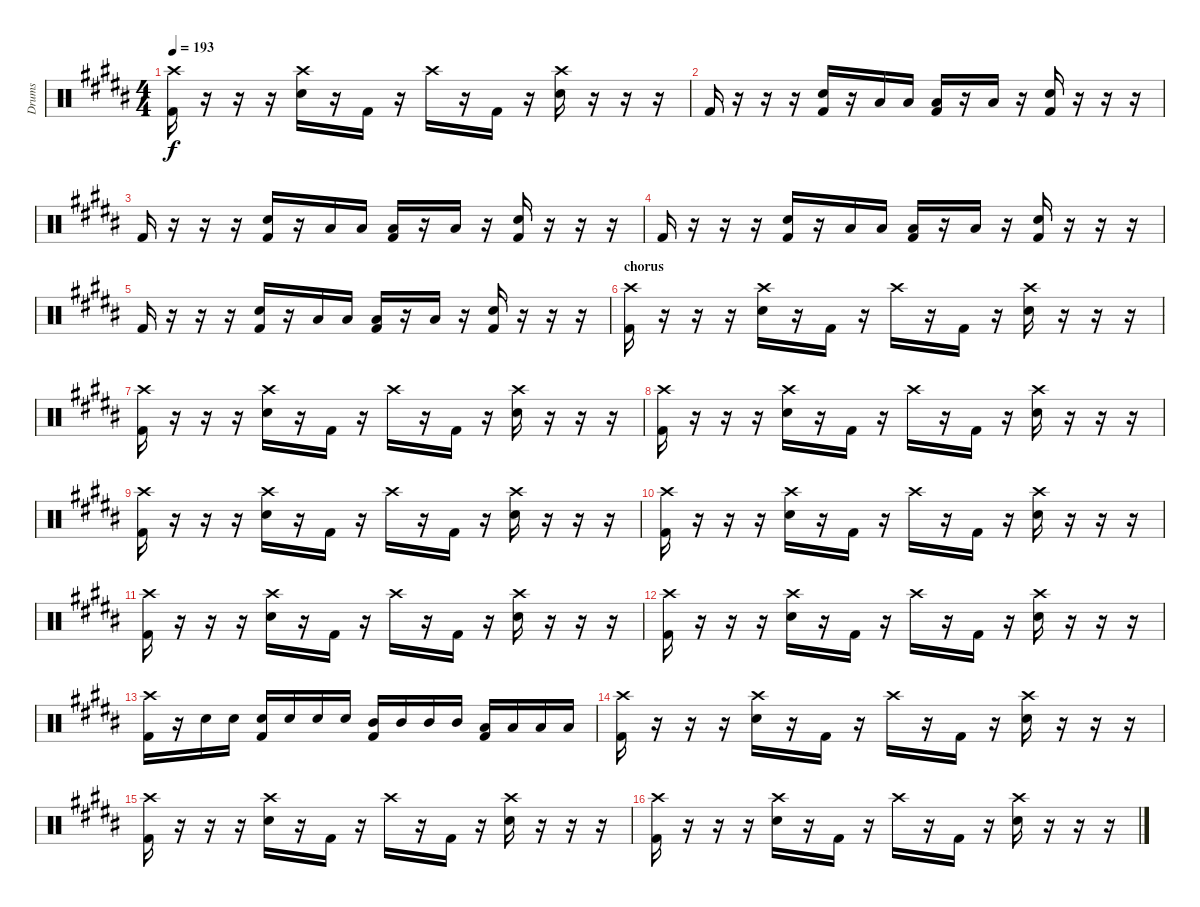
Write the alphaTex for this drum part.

\track ("Drums" "Drums") {instrument percussion}
\staff {score}
\articulation defaults
\ts (4 4)
\tempo 193
\clef neutral
\ks b
("Crash high (hit)" "Kick (hit) 2").16{dy f} r.16 r.16 r.16 ("Electric Snare (hit)" "Crash high (hit)").16 r.16 "Kick (hit) 2".16 r.16 "Crash high (hit)".16 r.16 "Kick (hit) 2".16 r.16 ("Electric Snare (hit)" "Crash high (hit)").16 r.16 r.16 r.16 |
"Kick (hit) 2".16 r.16 r.16 r.16 ("Electric Snare (hit)" "Kick (hit) 2").16 r.16 "Low Tom (hit)".16 "Low Tom (hit)".16 ("Low Tom (hit)" "Kick (hit) 2").16 r.16 "Low Tom (hit)".16 r.16 ("Electric Snare (hit)" "Kick (hit) 2").16 r.16 r.16 r.16 |
"Kick (hit) 2".16 r.16 r.16 r.16 ("Electric Snare (hit)" "Kick (hit) 2").16 r.16 "Low Tom (hit)".16 "Low Tom (hit)".16 ("Low Tom (hit)" "Kick (hit) 2").16 r.16 "Low Tom (hit)".16 r.16 ("Electric Snare (hit)" "Kick (hit) 2").16 r.16 r.16 r.16 |
"Kick (hit) 2".16 r.16 r.16 r.16 ("Electric Snare (hit)" "Kick (hit) 2").16 r.16 "Low Tom (hit)".16 "Low Tom (hit)".16 ("Low Tom (hit)" "Kick (hit) 2").16 r.16 "Low Tom (hit)".16 r.16 ("Electric Snare (hit)" "Kick (hit) 2").16 r.16 r.16 r.16 |
"Kick (hit) 2".16 r.16 r.16 r.16 ("Electric Snare (hit)" "Kick (hit) 2").16 r.16 "Low Tom (hit)".16 "Low Tom (hit)".16 ("Low Tom (hit)" "Kick (hit) 2").16 r.16 "Low Tom (hit)".16 r.16 ("Electric Snare (hit)" "Kick (hit) 2").16 r.16 r.16 r.16 |
\section ("" "chorus")
("Crash high (hit)" "Kick (hit) 2").16 r.16 r.16 r.16 ("Electric Snare (hit)" "Crash high (hit)").16 r.16 "Kick (hit) 2".16 r.16 "Crash high (hit)".16 r.16 "Kick (hit) 2".16 r.16 ("Electric Snare (hit)" "Crash high (hit)").16 r.16 r.16 r.16 |
("Crash high (hit)" "Kick (hit) 2").16 r.16 r.16 r.16 ("Electric Snare (hit)" "Crash high (hit)").16 r.16 "Kick (hit) 2".16 r.16 "Crash high (hit)".16 r.16 "Kick (hit) 2".16 r.16 ("Electric Snare (hit)" "Crash high (hit)").16 r.16 r.16 r.16 |
("Crash high (hit)" "Kick (hit) 2").16 r.16 r.16 r.16 ("Electric Snare (hit)" "Crash high (hit)").16 r.16 "Kick (hit) 2".16 r.16 "Crash high (hit)".16 r.16 "Kick (hit) 2".16 r.16 ("Electric Snare (hit)" "Crash high (hit)").16 r.16 r.16 r.16 |
("Crash high (hit)" "Kick (hit) 2").16 r.16 r.16 r.16 ("Electric Snare (hit)" "Crash high (hit)").16 r.16 "Kick (hit) 2".16 r.16 "Crash high (hit)".16 r.16 "Kick (hit) 2".16 r.16 ("Electric Snare (hit)" "Crash high (hit)").16 r.16 r.16 r.16 |
("Crash high (hit)" "Kick (hit) 2").16 r.16 r.16 r.16 ("Electric Snare (hit)" "Crash high (hit)").16 r.16 "Kick (hit) 2".16 r.16 "Crash high (hit)".16 r.16 "Kick (hit) 2".16 r.16 ("Electric Snare (hit)" "Crash high (hit)").16 r.16 r.16 r.16 |
("Crash high (hit)" "Kick (hit) 2").16 r.16 r.16 r.16 ("Electric Snare (hit)" "Crash high (hit)").16 r.16 "Kick (hit) 2".16 r.16 "Crash high (hit)".16 r.16 "Kick (hit) 2".16 r.16 ("Electric Snare (hit)" "Crash high (hit)").16 r.16 r.16 r.16 |
("Crash high (hit)" "Kick (hit) 2").16 r.16 r.16 r.16 ("Electric Snare (hit)" "Crash high (hit)").16 r.16 "Kick (hit) 2".16 r.16 "Crash high (hit)".16 r.16 "Kick (hit) 2".16 r.16 ("Electric Snare (hit)" "Crash high (hit)").16 r.16 r.16 r.16 |
("Crash high (hit)" "Kick (hit) 2").16 r.16 "Electric Snare (hit)".16 "Electric Snare (hit)".16 ("Electric Snare (hit)" "Kick (hit) 2").16 "Electric Snare (hit)".16 "Electric Snare (hit)".16 "Electric Snare (hit)".16 ("Mid Tom (hit)" "Kick (hit) 2").16 "Mid Tom (hit)".16 "Mid Tom (hit)".16 "Mid Tom (hit)".16 ("Low Tom (hit)" "Kick (hit) 2").16 "Low Tom (hit)".16 "Low Tom (hit)".16 "Low Tom (hit)".16 |
("Crash high (hit)" "Kick (hit) 2").16 r.16 r.16 r.16 ("Electric Snare (hit)" "Crash high (hit)").16 r.16 "Kick (hit) 2".16 r.16 "Crash high (hit)".16 r.16 "Kick (hit) 2".16 r.16 ("Electric Snare (hit)" "Crash high (hit)").16 r.16 r.16 r.16 |
("Crash high (hit)" "Kick (hit) 2").16 r.16 r.16 r.16 ("Electric Snare (hit)" "Crash high (hit)").16 r.16 "Kick (hit) 2".16 r.16 "Crash high (hit)".16 r.16 "Kick (hit) 2".16 r.16 ("Electric Snare (hit)" "Crash high (hit)").16 r.16 r.16 r.16 |
("Crash high (hit)" "Kick (hit) 2").16 r.16 r.16 r.16 ("Electric Snare (hit)" "Crash high (hit)").16 r.16 "Kick (hit) 2".16 r.16 "Crash high (hit)".16 r.16 "Kick (hit) 2".16 r.16 ("Electric Snare (hit)" "Crash high (hit)").16 r.16 r.16 r.16
